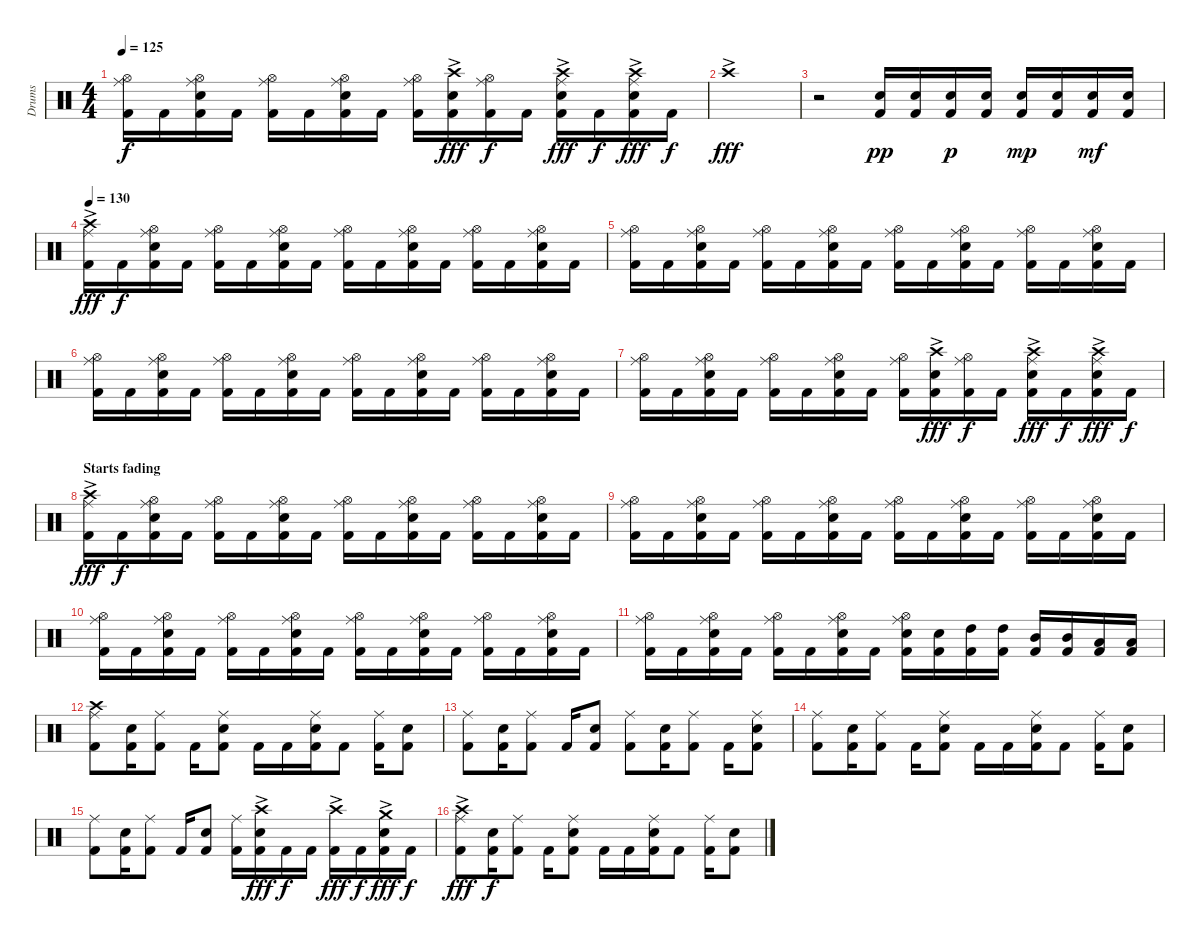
\track ("Drums" "Drums") {instrument percussion}
\staff {score}
\articulation defaults
\ts (4 4)
\tempo 125
\clef neutral
\ks c
("Hi-Hat (open)" "Ride (middle)" "Kick (hit) 2").16{dy f} "Kick (hit) 2".16 ("Hi-Hat (open)" "Ride (middle)" "Snare (hit) 2" "Kick (hit) 2").16 "Kick (hit) 2".16 ("Hi-Hat (open)" "Ride (middle)" "Kick (hit) 2").16 "Kick (hit) 2".16 ("Hi-Hat (open)" "Ride (middle)" "Snare (hit) 2" "Kick (hit) 2").16 "Kick (hit) 2".16 ("Hi-Hat (open)" "Ride (middle)" "Kick (hit) 2").16 ("Crash high (hit)"{ac} "Snare (hit) 2" "Kick (hit) 2").16{dy fff} ("Hi-Hat (open)" "Ride (middle)" "Kick (hit) 2").16{dy f} "Kick (hit) 2".16 ("Crash high (hit)"{ac} "Ride (middle)" "Snare (hit) 2" "Kick (hit) 2").16{dy fff} "Kick (hit) 2".16{dy f} ("Crash high (hit)"{ac} "Ride (middle)" "Snare (hit) 2" "Kick (hit) 2").16{dy fff} "Kick (hit) 2".16{dy f} |
"Crash high (hit)"{ac}.1{dy fff} |
r.2 ("Snare (hit) 2" "Kick (hit) 2").16{dy pp} ("Snare (hit) 2" "Kick (hit) 2").16 ("Snare (hit) 2" "Kick (hit) 2").16{dy p} ("Snare (hit) 2" "Kick (hit) 2").16 ("Snare (hit) 2" "Kick (hit) 2").16{dy mp} ("Snare (hit) 2" "Kick (hit) 2").16 ("Snare (hit) 2" "Kick (hit) 2").16{dy mf} ("Snare (hit) 2" "Kick (hit) 2").16 |
\tempo 130
("Crash high (hit)"{ac} "Ride (middle)" "Kick (hit) 2").16{dy fff} "Kick (hit) 2".16{dy f} ("Hi-Hat (open)" "Ride (middle)" "Snare (hit) 2" "Kick (hit) 2").16 "Kick (hit) 2".16 ("Hi-Hat (open)" "Ride (middle)" "Kick (hit) 2").16 "Kick (hit) 2".16 ("Hi-Hat (open)" "Ride (middle)" "Snare (hit) 2" "Kick (hit) 2").16 "Kick (hit) 2".16 ("Hi-Hat (open)" "Ride (middle)" "Kick (hit) 2").16 "Kick (hit) 2".16 ("Hi-Hat (open)" "Ride (middle)" "Snare (hit) 2" "Kick (hit) 2").16 "Kick (hit) 2".16 ("Hi-Hat (open)" "Ride (middle)" "Kick (hit) 2").16 "Kick (hit) 2".16 ("Hi-Hat (open)" "Ride (middle)" "Snare (hit) 2" "Kick (hit) 2").16 "Kick (hit) 2".16 |
("Hi-Hat (open)" "Ride (middle)" "Kick (hit) 2").16 "Kick (hit) 2".16 ("Hi-Hat (open)" "Ride (middle)" "Snare (hit) 2" "Kick (hit) 2").16 "Kick (hit) 2".16 ("Hi-Hat (open)" "Ride (middle)" "Kick (hit) 2").16 "Kick (hit) 2".16 ("Hi-Hat (open)" "Ride (middle)" "Snare (hit) 2" "Kick (hit) 2").16 "Kick (hit) 2".16 ("Hi-Hat (open)" "Ride (middle)" "Kick (hit) 2").16 "Kick (hit) 2".16 ("Hi-Hat (open)" "Ride (middle)" "Snare (hit) 2" "Kick (hit) 2").16 "Kick (hit) 2".16 ("Hi-Hat (open)" "Ride (middle)" "Kick (hit) 2").16 "Kick (hit) 2".16 ("Hi-Hat (open)" "Ride (middle)" "Snare (hit) 2" "Kick (hit) 2").16 "Kick (hit) 2".16 |
("Hi-Hat (open)" "Ride (middle)" "Kick (hit) 2").16 "Kick (hit) 2".16 ("Hi-Hat (open)" "Ride (middle)" "Snare (hit) 2" "Kick (hit) 2").16 "Kick (hit) 2".16 ("Hi-Hat (open)" "Ride (middle)" "Kick (hit) 2").16 "Kick (hit) 2".16 ("Hi-Hat (open)" "Ride (middle)" "Snare (hit) 2" "Kick (hit) 2").16 "Kick (hit) 2".16 ("Hi-Hat (open)" "Ride (middle)" "Kick (hit) 2").16 "Kick (hit) 2".16 ("Hi-Hat (open)" "Ride (middle)" "Snare (hit) 2" "Kick (hit) 2").16 "Kick (hit) 2".16 ("Hi-Hat (open)" "Ride (middle)" "Kick (hit) 2").16 "Kick (hit) 2".16 ("Hi-Hat (open)" "Ride (middle)" "Snare (hit) 2" "Kick (hit) 2").16 "Kick (hit) 2".16 |
("Hi-Hat (open)" "Ride (middle)" "Kick (hit) 2").16 "Kick (hit) 2".16 ("Hi-Hat (open)" "Ride (middle)" "Snare (hit) 2" "Kick (hit) 2").16 "Kick (hit) 2".16 ("Hi-Hat (open)" "Ride (middle)" "Kick (hit) 2").16 "Kick (hit) 2".16 ("Hi-Hat (open)" "Ride (middle)" "Snare (hit) 2" "Kick (hit) 2").16 "Kick (hit) 2".16 ("Hi-Hat (open)" "Ride (middle)" "Kick (hit) 2").16 ("Crash high (hit)"{ac} "Snare (hit) 2" "Kick (hit) 2").16{dy fff} ("Hi-Hat (open)" "Ride (middle)" "Kick (hit) 2").16{dy f} "Kick (hit) 2".16 ("Crash high (hit)"{ac} "Ride (middle)" "Snare (hit) 2" "Kick (hit) 2").16{dy fff} "Kick (hit) 2".16{dy f} ("Crash high (hit)"{ac} "Ride (middle)" "Snare (hit) 2" "Kick (hit) 2").16{dy fff} "Kick (hit) 2".16{dy f} |
\section ("" "Starts fading")
("Crash high (hit)"{ac} "Ride (middle)" "Kick (hit) 2").16{dy fff} "Kick (hit) 2".16{dy f} ("Hi-Hat (open)" "Ride (middle)" "Snare (hit) 2" "Kick (hit) 2").16 "Kick (hit) 2".16 ("Hi-Hat (open)" "Ride (middle)" "Kick (hit) 2").16 "Kick (hit) 2".16 ("Hi-Hat (open)" "Ride (middle)" "Snare (hit) 2" "Kick (hit) 2").16 "Kick (hit) 2".16 ("Hi-Hat (open)" "Ride (middle)" "Kick (hit) 2").16 "Kick (hit) 2".16 ("Hi-Hat (open)" "Ride (middle)" "Snare (hit) 2" "Kick (hit) 2").16 "Kick (hit) 2".16 ("Hi-Hat (open)" "Ride (middle)" "Kick (hit) 2").16 "Kick (hit) 2".16 ("Hi-Hat (open)" "Ride (middle)" "Snare (hit) 2" "Kick (hit) 2").16 "Kick (hit) 2".16 |
("Hi-Hat (open)" "Ride (middle)" "Kick (hit) 2").16 "Kick (hit) 2".16 ("Hi-Hat (open)" "Ride (middle)" "Snare (hit) 2" "Kick (hit) 2").16 "Kick (hit) 2".16 ("Hi-Hat (open)" "Ride (middle)" "Kick (hit) 2").16 "Kick (hit) 2".16 ("Hi-Hat (open)" "Ride (middle)" "Snare (hit) 2" "Kick (hit) 2").16 "Kick (hit) 2".16 ("Hi-Hat (open)" "Ride (middle)" "Kick (hit) 2").16 "Kick (hit) 2".16 ("Hi-Hat (open)" "Ride (middle)" "Snare (hit) 2" "Kick (hit) 2").16 "Kick (hit) 2".16 ("Hi-Hat (open)" "Ride (middle)" "Kick (hit) 2").16 "Kick (hit) 2".16 ("Hi-Hat (open)" "Ride (middle)" "Snare (hit) 2" "Kick (hit) 2").16 "Kick (hit) 2".16 |
("Hi-Hat (open)" "Ride (middle)" "Kick (hit) 2").16 "Kick (hit) 2".16 ("Hi-Hat (open)" "Ride (middle)" "Snare (hit) 2" "Kick (hit) 2").16 "Kick (hit) 2".16 ("Hi-Hat (open)" "Ride (middle)" "Kick (hit) 2").16 "Kick (hit) 2".16 ("Hi-Hat (open)" "Ride (middle)" "Snare (hit) 2" "Kick (hit) 2").16 "Kick (hit) 2".16 ("Hi-Hat (open)" "Ride (middle)" "Kick (hit) 2").16 "Kick (hit) 2".16 ("Hi-Hat (open)" "Ride (middle)" "Snare (hit) 2" "Kick (hit) 2").16 "Kick (hit) 2".16 ("Hi-Hat (open)" "Ride (middle)" "Kick (hit) 2").16 "Kick (hit) 2".16 ("Hi-Hat (open)" "Ride (middle)" "Snare (hit) 2" "Kick (hit) 2").16 "Kick (hit) 2".16 |
("Hi-Hat (open)" "Ride (middle)" "Kick (hit) 2").16 "Kick (hit) 2".16 ("Hi-Hat (open)" "Ride (middle)" "Snare (hit) 2" "Kick (hit) 2").16 "Kick (hit) 2".16 ("Hi-Hat (open)" "Ride (middle)" "Kick (hit) 2").16 "Kick (hit) 2".16 ("Hi-Hat (open)" "Ride (middle)" "Snare (hit) 2" "Kick (hit) 2").16 "Kick (hit) 2".16 ("Hi-Hat (open)" "Ride (middle)" "Snare (hit) 2" "Kick (hit) 2").16 ("Snare (hit) 2" "Kick (hit) 2").16 ("High Tom (hit)" "Kick (hit) 2").16 ("High Tom (hit)" "Kick (hit) 2").16 ("Mid Tom (hit)" "Kick (hit) 2").16 ("Mid Tom (hit)" "Kick (hit) 2").16 ("Low Tom (hit)" "Kick (hit) 2").16 ("Low Tom (hit)" "Kick (hit) 2").16 |
("Crash high (hit)" "Ride (middle)" "Kick (hit) 2").8 ("Snare (hit) 2" "Kick (hit) 2").16 ("Ride (middle)" "Kick (hit) 2").8 "Kick (hit) 2".16 ("Ride (middle)" "Snare (hit) 2" "Kick (hit) 2").8 "Kick (hit) 2".16 "Kick (hit) 2".16 ("Ride (middle)" "Snare (hit) 2" "Kick (hit) 2").16 "Kick (hit) 2".8 ("Ride (middle)" "Kick (hit) 2").16 ("Snare (hit) 2" "Kick (hit) 2").8 |
("Ride (middle)" "Kick (hit) 2").8 ("Snare (hit) 2" "Kick (hit) 2").16 ("Ride (middle)" "Kick (hit) 2").8 "Kick (hit) 2".16 ("Snare (hit) 2" "Kick (hit) 2").8 ("Ride (middle)" "Kick (hit) 2").8 ("Snare (hit) 2" "Kick (hit) 2").16 ("Ride (middle)" "Kick (hit) 2").8 "Kick (hit) 2".16 ("Ride (middle)" "Snare (hit) 2" "Kick (hit) 2").8 |
("Ride (middle)" "Kick (hit) 2").8 ("Snare (hit) 2" "Kick (hit) 2").16 ("Ride (middle)" "Kick (hit) 2").8 "Kick (hit) 2".16 ("Ride (middle)" "Snare (hit) 2" "Kick (hit) 2").8 "Kick (hit) 2".16 "Kick (hit) 2".16 ("Ride (middle)" "Snare (hit) 2" "Kick (hit) 2").16 "Kick (hit) 2".8 ("Ride (middle)" "Kick (hit) 2").16 ("Snare (hit) 2" "Kick (hit) 2").8 |
("Ride (middle)" "Kick (hit) 2").8 ("Snare (hit) 2" "Kick (hit) 2").16 ("Ride (middle)" "Kick (hit) 2").8 "Kick (hit) 2".16 ("Snare (hit) 2" "Kick (hit) 2").8 ("Ride (middle)" "Kick (hit) 2").16 ("Crash high (hit)"{ac} "Snare (hit) 2" "Kick (hit) 2").16{dy fff} "Kick (hit) 2".16{dy f} "Kick (hit) 2".16 ("Crash high (hit)"{ac} "Kick (hit) 2").16{dy fff} "Kick (hit) 2".16{dy f} ("Crash medium (hit)"{ac} "Snare (hit) 2" "Kick (hit) 2").16{dy fff} "Kick (hit) 2".16{dy f} |
("Crash high (hit)"{ac} "Ride (middle)" "Kick (hit) 2").8{dy fff} ("Snare (hit) 2" "Kick (hit) 2").16{dy f} ("Ride (middle)" "Kick (hit) 2").8 "Kick (hit) 2".16 ("Ride (middle)" "Snare (hit) 2" "Kick (hit) 2").8 "Kick (hit) 2".16 "Kick (hit) 2".16 ("Ride (middle)" "Snare (hit) 2" "Kick (hit) 2").16 "Kick (hit) 2".8 ("Ride (middle)" "Kick (hit) 2").16 ("Snare (hit) 2" "Kick (hit) 2").8
